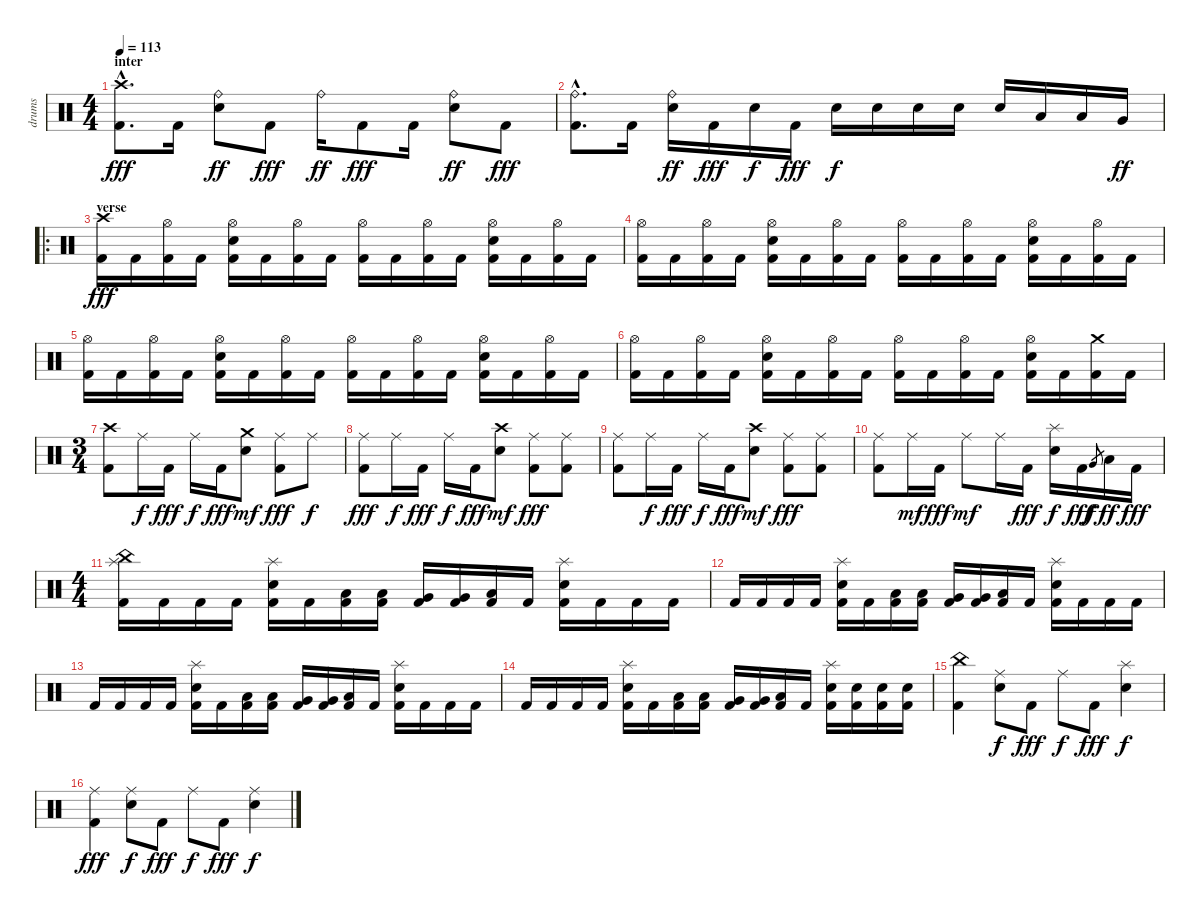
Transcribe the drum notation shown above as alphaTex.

\track ("drums" "drums") {instrument percussion}
\staff {score}
\articulation defaults
\ts (4 4)
\section ("" "inter")
\tempo 113
\clef neutral
\ks c
("Crash high (hit)"{hac} "Kick (hit) 2"{hac}).8{d dy fff} "Kick (hit) 2".16 ("Ride (bell)" "Electric Snare (hit)").8{dy ff} "Kick (hit) 2".8{dy fff} "Ride (bell)".16{dy ff} "Kick (hit) 2".8{dy fff} "Kick (hit) 2".16 ("Ride (bell)" "Electric Snare (hit)").8{dy ff} "Kick (hit) 2".8{dy fff} |
("Ride (bell)"{hac} "Kick (hit) 2"{hac}).8{d} "Kick (hit) 2".16 ("Ride (bell)" "Electric Snare (hit)").16{dy ff} "Kick (hit) 2".16{dy fff} "Electric Snare (hit)".16{dy f} "Kick (hit) 2".16{dy fff} "Electric Snare (hit)".16{dy f} "Electric Snare (hit)".16 "Electric Snare (hit)".16 "Electric Snare (hit)".16 "Electric Snare (hit)".16 "Low Tom (hit)".16 "Low Tom (hit)".16 "Very Low Tom (hit)".16{dy ff} |
\ro
\section ("" "verse")
("Crash high (hit)" "Kick (hit) 2").16{dy fff} "Kick (hit) 2".16 ("Hi-Hat (open)" "Kick (hit) 2").16 "Kick (hit) 2".16 ("Hi-Hat (open)" "Electric Snare (hit)" "Kick (hit) 2").16 "Kick (hit) 2".16 ("Hi-Hat (open)" "Kick (hit) 2").16 "Kick (hit) 2".16 ("Hi-Hat (open)" "Kick (hit) 2").16 "Kick (hit) 2".16 ("Hi-Hat (open)" "Kick (hit) 2").16 "Kick (hit) 2".16 ("Hi-Hat (open)" "Electric Snare (hit)" "Kick (hit) 2").16 "Kick (hit) 2".16 ("Hi-Hat (open)" "Kick (hit) 2").16 "Kick (hit) 2".16 |
("Hi-Hat (open)" "Kick (hit) 2").16 "Kick (hit) 2".16 ("Hi-Hat (open)" "Kick (hit) 2").16 "Kick (hit) 2".16 ("Hi-Hat (open)" "Electric Snare (hit)" "Kick (hit) 2").16 "Kick (hit) 2".16 ("Hi-Hat (open)" "Kick (hit) 2").16 "Kick (hit) 2".16 ("Hi-Hat (open)" "Kick (hit) 2").16 "Kick (hit) 2".16 ("Hi-Hat (open)" "Kick (hit) 2").16 "Kick (hit) 2".16 ("Hi-Hat (open)" "Electric Snare (hit)" "Kick (hit) 2").16 "Kick (hit) 2".16 ("Hi-Hat (open)" "Kick (hit) 2").16 "Kick (hit) 2".16 |
("Hi-Hat (open)" "Kick (hit) 2").16 "Kick (hit) 2".16 ("Hi-Hat (open)" "Kick (hit) 2").16 "Kick (hit) 2".16 ("Hi-Hat (open)" "Electric Snare (hit)" "Kick (hit) 2").16 "Kick (hit) 2".16 ("Hi-Hat (open)" "Kick (hit) 2").16 "Kick (hit) 2".16 ("Hi-Hat (open)" "Kick (hit) 2").16 "Kick (hit) 2".16 ("Hi-Hat (open)" "Kick (hit) 2").16 "Kick (hit) 2".16 ("Hi-Hat (open)" "Electric Snare (hit)" "Kick (hit) 2").16 "Kick (hit) 2".16 ("Hi-Hat (open)" "Kick (hit) 2").16 "Kick (hit) 2".16 |
("Hi-Hat (open)" "Kick (hit) 2").16 "Kick (hit) 2".16 ("Hi-Hat (open)" "Kick (hit) 2").16 "Kick (hit) 2".16 ("Hi-Hat (open)" "Electric Snare (hit)" "Kick (hit) 2").16 "Kick (hit) 2".16 ("Hi-Hat (open)" "Kick (hit) 2").16 "Kick (hit) 2".16 ("Hi-Hat (open)" "Kick (hit) 2").16 "Kick (hit) 2".16 ("Hi-Hat (open)" "Kick (hit) 2").16 "Kick (hit) 2".16 ("Hi-Hat (open)" "Electric Snare (hit)" "Kick (hit) 2").16 "Kick (hit) 2".16 ("Crash medium (hit)" "Kick (hit) 2").16 "Kick (hit) 2".16 |
\ts (3 4)
("Crash high (hit)" "Kick (hit) 2").8 "Ride (middle)".16{dy f} "Kick (hit) 2".16{dy fff} "Ride (middle)".16{dy f} "Kick (hit) 2".16{dy fff} ("Crash medium (hit)" "Electric Snare (hit)").8{dy mf} ("Ride (middle)" "Kick (hit) 2").8{dy fff} "Ride (middle)".8{dy f} |
("Ride (middle)" "Kick (hit) 2").8{dy fff} "Ride (middle)".16{dy f} "Kick (hit) 2".16{dy fff} "Ride (middle)".16{dy f} "Kick (hit) 2".16{dy fff} ("Crash high (hit)" "Electric Snare (hit)").8{dy mf} ("Ride (middle)" "Kick (hit) 2").8{dy fff} ("Ride (middle)" "Kick (hit) 2").8 |
("Ride (middle)" "Kick (hit) 2").8 "Ride (middle)".16{dy f} "Kick (hit) 2".16{dy fff} "Ride (middle)".16{dy f} "Kick (hit) 2".16{dy fff} ("Crash high (hit)" "Electric Snare (hit)").8{dy mf} ("Ride (middle)" "Kick (hit) 2").8{dy fff} ("Ride (middle)" "Kick (hit) 2").8 |
("Ride (middle)" "Kick (hit) 2").8 "Ride (middle)".16{dy mf} "Kick (hit) 2".16{dy fff} "Ride (middle)".8{dy mf} "Ride (middle)".16 "Kick (hit) 2".16{dy fff} ("Splash (hit)" "Electric Snare (hit)").16{dy f} "Kick (hit) 2".16{dy fff} "Very Low Tom (hit)".8{gr dy f} "Low Tom (hit)".16{dy ff} "Kick (hit) 2".16{dy fff} |
\ts (4 4)
("China (hit)" "Splash (hit)" "Kick (hit) 2").16 "Kick (hit) 2".16 "Kick (hit) 2".16 "Kick (hit) 2".16 ("Splash (hit)" "Electric Snare (hit)" "Kick (hit) 2").16 "Kick (hit) 2".16 ("Low Tom (hit)" "Kick (hit) 2").16 ("Low Tom (hit)" "Kick (hit) 2").16 ("Very Low Tom (hit)" "Kick (hit) 2").16 ("Very Low Tom (hit)" "Kick (hit) 2").16 ("Low Floor Tom (hit)" "Kick (hit) 2").16 "Kick (hit) 2".16 ("Splash (hit)" "Electric Snare (hit)" "Kick (hit) 2").16 "Kick (hit) 2".16 "Kick (hit) 2".16 "Kick (hit) 2".16 |
"Kick (hit) 2".16 "Kick (hit) 2".16 "Kick (hit) 2".16 "Kick (hit) 2".16 ("Splash (hit)" "Electric Snare (hit)" "Kick (hit) 2").16 "Kick (hit) 2".16 ("Low Tom (hit)" "Kick (hit) 2").16 ("Low Tom (hit)" "Kick (hit) 2").16 ("Very Low Tom (hit)" "Kick (hit) 2").16 ("Very Low Tom (hit)" "Kick (hit) 2").16 ("Low Floor Tom (hit)" "Kick (hit) 2").16 "Kick (hit) 2".16 ("Splash (hit)" "Electric Snare (hit)" "Kick (hit) 2").16 "Kick (hit) 2".16 "Kick (hit) 2".16 "Kick (hit) 2".16 |
"Kick (hit) 2".16 "Kick (hit) 2".16 "Kick (hit) 2".16 "Kick (hit) 2".16 ("Splash (hit)" "Electric Snare (hit)" "Kick (hit) 2").16 "Kick (hit) 2".16 ("Low Tom (hit)" "Kick (hit) 2").16 ("Low Tom (hit)" "Kick (hit) 2").16 ("Very Low Tom (hit)" "Kick (hit) 2").16 ("Very Low Tom (hit)" "Kick (hit) 2").16 ("Low Floor Tom (hit)" "Kick (hit) 2").16 "Kick (hit) 2".16 ("Splash (hit)" "Electric Snare (hit)" "Kick (hit) 2").16 "Kick (hit) 2".16 "Kick (hit) 2".16 "Kick (hit) 2".16 |
"Kick (hit) 2".16 "Kick (hit) 2".16 "Kick (hit) 2".16 "Kick (hit) 2".16 ("Splash (hit)" "Electric Snare (hit)" "Kick (hit) 2").16 "Kick (hit) 2".16 ("Low Tom (hit)" "Kick (hit) 2").16 ("Low Tom (hit)" "Kick (hit) 2").16 ("Very Low Tom (hit)" "Kick (hit) 2").16 ("Very Low Tom (hit)" "Kick (hit) 2").16 ("Low Floor Tom (hit)" "Kick (hit) 2").16 "Kick (hit) 2".16 ("Splash (hit)" "Electric Snare (hit)" "Kick (hit) 2").16 ("Electric Snare (hit)" "Kick (hit) 2").16 ("Electric Snare (hit)" "Kick (hit) 2").16 ("Electric Snare (hit)" "Kick (hit) 2").16 |
("China (hit)" "Kick (hit) 2").4 ("Ride (middle)" "Electric Snare (hit)").8{dy f} "Kick (hit) 2".8{dy fff} "Ride (middle)".8{dy f} "Kick (hit) 2".8{dy fff} ("Splash (hit)" "Electric Snare (hit)").4{dy f} |
("Ride (middle)" "Kick (hit) 2").4{dy fff} ("Ride (middle)" "Electric Snare (hit)").8{dy f} "Kick (hit) 2".8{dy fff} "Ride (middle)".8{dy f} "Kick (hit) 2".8{dy fff} ("Ride (middle)" "Electric Snare (hit)").4{dy f}
